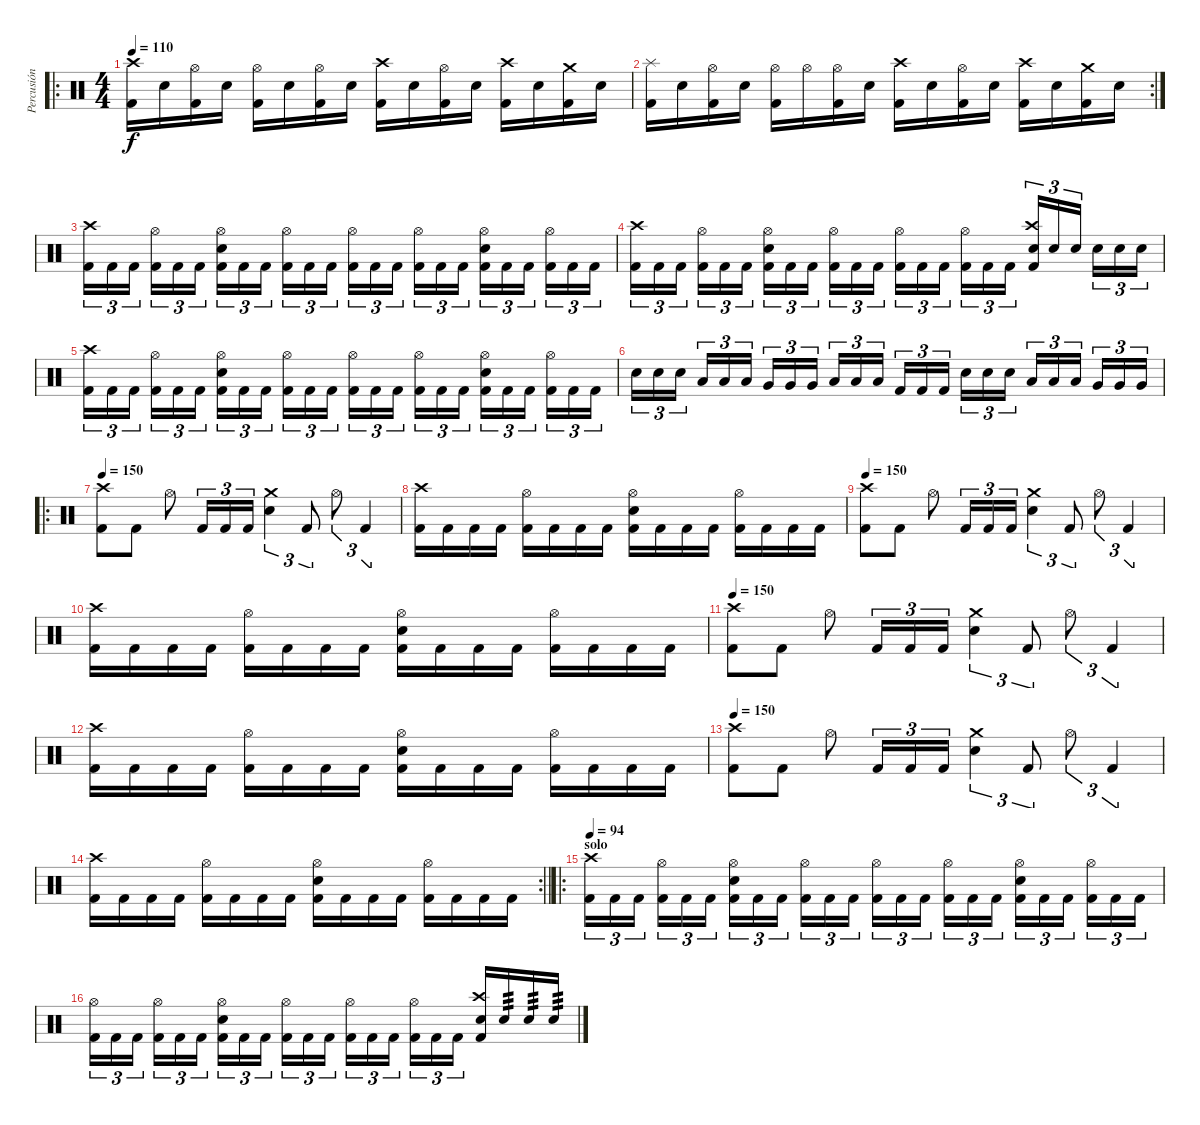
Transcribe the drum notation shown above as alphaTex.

\track ("Percusión" "Percusión") {instrument percussion}
\staff
\articulation defaults
\ro
\ts (4 4)
\tempo 110
\clef neutral
\ks c
("Kick (hit) 2" "Crash high (hit)").16{dy f} "Electric Snare (hit)".16 ("Kick (hit) 2" "Hi-Hat (open)").16 "Electric Snare (hit)".16 ("Kick (hit) 2" "Hi-Hat (open)").16 "Electric Snare (hit)".16 ("Kick (hit) 2" "Hi-Hat (open)").16 "Electric Snare (hit)".16 ("Kick (hit) 2" "Crash high (hit)").16 "Electric Snare (hit)".16 ("Kick (hit) 2" "Hi-Hat (open)").16 "Electric Snare (hit)".16 ("Kick (hit) 2" "Crash high (hit)").16 "Electric Snare (hit)".16 ("Kick (hit) 2" "Crash medium (hit)").16 "Electric Snare (hit)".16 |
\rc 2
("Kick (hit) 2" "Splash (hit)").16 "Electric Snare (hit)".16 ("Kick (hit) 2" "Hi-Hat (open)").16 "Electric Snare (hit)".16 ("Kick (hit) 2" "Hi-Hat (open)").16 "Hi-Hat (open)".16 ("Kick (hit) 2" "Hi-Hat (open)").16 "Electric Snare (hit)".16 ("Kick (hit) 2" "Crash high (hit)").16 "Electric Snare (hit)".16 ("Kick (hit) 2" "Hi-Hat (open)").16 "Electric Snare (hit)".16 ("Kick (hit) 2" "Crash high (hit)").16 "Electric Snare (hit)".16 ("Kick (hit) 2" "Crash medium (hit)").16 "Electric Snare (hit)".16 |
("Kick (hit) 2" "Crash high (hit)").16{tu (3 2)} "Kick (hit) 2".16{tu (3 2)} "Kick (hit) 2".16{tu (3 2) beam splitsecondary} ("Kick (hit) 2" "Hi-Hat (open)").16{tu (3 2)} "Kick (hit) 2".16{tu (3 2)} "Kick (hit) 2".16{tu (3 2)} ("Kick (hit) 2" "Hi-Hat (open)" "Electric Snare (hit)").16{tu (3 2)} "Kick (hit) 2".16{tu (3 2)} "Kick (hit) 2".16{tu (3 2) beam splitsecondary} ("Kick (hit) 2" "Hi-Hat (open)").16{tu (3 2)} "Kick (hit) 2".16{tu (3 2)} "Kick (hit) 2".16{tu (3 2)} ("Kick (hit) 2" "Hi-Hat (open)").16{tu (3 2)} "Kick (hit) 2".16{tu (3 2)} "Kick (hit) 2".16{tu (3 2) beam splitsecondary} ("Kick (hit) 2" "Hi-Hat (open)").16{tu (3 2)} "Kick (hit) 2".16{tu (3 2)} "Kick (hit) 2".16{tu (3 2)} ("Kick (hit) 2" "Hi-Hat (open)" "Electric Snare (hit)").16{tu (3 2)} "Kick (hit) 2".16{tu (3 2)} "Kick (hit) 2".16{tu (3 2) beam splitsecondary} ("Kick (hit) 2" "Hi-Hat (open)").16{tu (3 2)} "Kick (hit) 2".16{tu (3 2)} "Kick (hit) 2".16{tu (3 2)} |
("Kick (hit) 2" "Crash high (hit)").16{tu (3 2)} "Kick (hit) 2".16{tu (3 2)} "Kick (hit) 2".16{tu (3 2) beam splitsecondary} ("Kick (hit) 2" "Hi-Hat (open)").16{tu (3 2)} "Kick (hit) 2".16{tu (3 2)} "Kick (hit) 2".16{tu (3 2)} ("Kick (hit) 2" "Hi-Hat (open)" "Electric Snare (hit)").16{tu (3 2)} "Kick (hit) 2".16{tu (3 2)} "Kick (hit) 2".16{tu (3 2) beam splitsecondary} ("Kick (hit) 2" "Hi-Hat (open)").16{tu (3 2)} "Kick (hit) 2".16{tu (3 2)} "Kick (hit) 2".16{tu (3 2)} ("Kick (hit) 2" "Hi-Hat (open)").16{tu (3 2)} "Kick (hit) 2".16{tu (3 2)} "Kick (hit) 2".16{tu (3 2) beam splitsecondary} ("Kick (hit) 2" "Hi-Hat (open)").16{tu (3 2)} "Kick (hit) 2".16{tu (3 2)} "Kick (hit) 2".16{tu (3 2)} ("Kick (hit) 2" "Crash high (hit)" "Electric Snare (hit)").16{tu (3 2)} "Electric Snare (hit)".16{tu (3 2)} "Electric Snare (hit)".16{tu (3 2) beam splitsecondary} "Electric Snare (hit)".16{tu (3 2)} "Electric Snare (hit)".16{tu (3 2)} "Electric Snare (hit)".16{tu (3 2)} |
("Kick (hit) 2" "Crash high (hit)").16{tu (3 2)} "Kick (hit) 2".16{tu (3 2)} "Kick (hit) 2".16{tu (3 2) beam splitsecondary} ("Kick (hit) 2" "Hi-Hat (open)").16{tu (3 2)} "Kick (hit) 2".16{tu (3 2)} "Kick (hit) 2".16{tu (3 2)} ("Kick (hit) 2" "Hi-Hat (open)" "Electric Snare (hit)").16{tu (3 2)} "Kick (hit) 2".16{tu (3 2)} "Kick (hit) 2".16{tu (3 2) beam splitsecondary} ("Kick (hit) 2" "Hi-Hat (open)").16{tu (3 2)} "Kick (hit) 2".16{tu (3 2)} "Kick (hit) 2".16{tu (3 2)} ("Kick (hit) 2" "Hi-Hat (open)").16{tu (3 2)} "Kick (hit) 2".16{tu (3 2)} "Kick (hit) 2".16{tu (3 2) beam splitsecondary} ("Kick (hit) 2" "Hi-Hat (open)").16{tu (3 2)} "Kick (hit) 2".16{tu (3 2)} "Kick (hit) 2".16{tu (3 2)} ("Kick (hit) 2" "Hi-Hat (open)" "Electric Snare (hit)").16{tu (3 2)} "Kick (hit) 2".16{tu (3 2)} "Kick (hit) 2".16{tu (3 2) beam splitsecondary} ("Kick (hit) 2" "Hi-Hat (open)").16{tu (3 2)} "Kick (hit) 2".16{tu (3 2)} "Kick (hit) 2".16{tu (3 2)} |
"Electric Snare (hit)".16{tu (3 2)} "Electric Snare (hit)".16{tu (3 2)} "Electric Snare (hit)".16{tu (3 2) beam splitsecondary} "Low Tom (hit)".16{tu (3 2)} "Low Tom (hit)".16{tu (3 2)} "Low Tom (hit)".16{tu (3 2)} "Very Low Tom (hit)".16{tu (3 2)} "Very Low Tom (hit)".16{tu (3 2)} "Very Low Tom (hit)".16{tu (3 2) beam splitsecondary} "Low Floor Tom (hit)".16{tu (3 2)} "Low Floor Tom (hit)".16{tu (3 2)} "Low Floor Tom (hit)".16{tu (3 2)} "Kick (hit) 2".16{tu (3 2)} "Kick (hit) 2".16{tu (3 2)} "Kick (hit) 2".16{tu (3 2) beam splitsecondary} "Electric Snare (hit)".16{tu (3 2)} "Electric Snare (hit)".16{tu (3 2)} "Electric Snare (hit)".16{tu (3 2)} "Low Tom (hit)".16{tu (3 2)} "Low Tom (hit)".16{tu (3 2)} "Low Tom (hit)".16{tu (3 2) beam splitsecondary} "Very Low Tom (hit)".16{tu (3 2)} "Very Low Tom (hit)".16{tu (3 2)} "Very Low Tom (hit)".16{tu (3 2)} |
\ro
\tempo 150
("Kick (hit) 2" "Crash high (hit)").8 "Kick (hit) 2".8 "Hi-Hat (open)".8 "Kick (hit) 2".16{tu (3 2)} "Kick (hit) 2".16{tu (3 2)} "Kick (hit) 2".16{tu (3 2)} ("Crash medium (hit)" "Electric Snare (hit)").4{tu (3 2)} "Kick (hit) 2".8{tu (3 2)} "Hi-Hat (open)".8{tu (3 2)} "Kick (hit) 2".4{tu (3 2)} |
("Kick (hit) 2" "Crash high (hit)").16 "Kick (hit) 2".16 "Kick (hit) 2".16 "Kick (hit) 2".16 ("Kick (hit) 2" "Hi-Hat (open)").16 "Kick (hit) 2".16 "Kick (hit) 2".16 "Kick (hit) 2".16 ("Kick (hit) 2" "Hi-Hat (open)" "Electric Snare (hit)").16 "Kick (hit) 2".16 "Kick (hit) 2".16 "Kick (hit) 2".16 ("Kick (hit) 2" "Hi-Hat (open)").16 "Kick (hit) 2".16 "Kick (hit) 2".16 "Kick (hit) 2".16 |
\tempo 150
("Kick (hit) 2" "Crash high (hit)").8 "Kick (hit) 2".8 "Hi-Hat (open)".8 "Kick (hit) 2".16{tu (3 2)} "Kick (hit) 2".16{tu (3 2)} "Kick (hit) 2".16{tu (3 2)} ("Crash medium (hit)" "Electric Snare (hit)").4{tu (3 2)} "Kick (hit) 2".8{tu (3 2)} "Hi-Hat (open)".8{tu (3 2)} "Kick (hit) 2".4{tu (3 2)} |
("Kick (hit) 2" "Crash high (hit)").16 "Kick (hit) 2".16 "Kick (hit) 2".16 "Kick (hit) 2".16 ("Kick (hit) 2" "Hi-Hat (open)").16 "Kick (hit) 2".16 "Kick (hit) 2".16 "Kick (hit) 2".16 ("Kick (hit) 2" "Hi-Hat (open)" "Electric Snare (hit)").16 "Kick (hit) 2".16 "Kick (hit) 2".16 "Kick (hit) 2".16 ("Kick (hit) 2" "Hi-Hat (open)").16 "Kick (hit) 2".16 "Kick (hit) 2".16 "Kick (hit) 2".16 |
\tempo 150
("Kick (hit) 2" "Crash high (hit)").8 "Kick (hit) 2".8 "Hi-Hat (open)".8 "Kick (hit) 2".16{tu (3 2)} "Kick (hit) 2".16{tu (3 2)} "Kick (hit) 2".16{tu (3 2)} ("Crash medium (hit)" "Electric Snare (hit)").4{tu (3 2)} "Kick (hit) 2".8{tu (3 2)} "Hi-Hat (open)".8{tu (3 2)} "Kick (hit) 2".4{tu (3 2)} |
("Kick (hit) 2" "Crash high (hit)").16 "Kick (hit) 2".16 "Kick (hit) 2".16 "Kick (hit) 2".16 ("Kick (hit) 2" "Hi-Hat (open)").16 "Kick (hit) 2".16 "Kick (hit) 2".16 "Kick (hit) 2".16 ("Kick (hit) 2" "Hi-Hat (open)" "Electric Snare (hit)").16 "Kick (hit) 2".16 "Kick (hit) 2".16 "Kick (hit) 2".16 ("Kick (hit) 2" "Hi-Hat (open)").16 "Kick (hit) 2".16 "Kick (hit) 2".16 "Kick (hit) 2".16 |
\tempo 150
("Kick (hit) 2" "Crash high (hit)").8 "Kick (hit) 2".8 "Hi-Hat (open)".8 "Kick (hit) 2".16{tu (3 2)} "Kick (hit) 2".16{tu (3 2)} "Kick (hit) 2".16{tu (3 2)} ("Crash medium (hit)" "Electric Snare (hit)").4{tu (3 2)} "Kick (hit) 2".8{tu (3 2)} "Hi-Hat (open)".8{tu (3 2)} "Kick (hit) 2".4{tu (3 2)} |
\rc 2
\barLineRight lightlight
("Kick (hit) 2" "Crash high (hit)").16 "Kick (hit) 2".16 "Kick (hit) 2".16 "Kick (hit) 2".16 ("Kick (hit) 2" "Hi-Hat (open)").16 "Kick (hit) 2".16 "Kick (hit) 2".16 "Kick (hit) 2".16 ("Kick (hit) 2" "Hi-Hat (open)" "Electric Snare (hit)").16 "Kick (hit) 2".16 "Kick (hit) 2".16 "Kick (hit) 2".16 ("Kick (hit) 2" "Hi-Hat (open)").16 "Kick (hit) 2".16 "Kick (hit) 2".16 "Kick (hit) 2".16 |
\ro
\section ("" "solo")
\tempo 94
("Kick (hit) 2" "Crash high (hit)").16{tu (3 2)} "Kick (hit) 2".16{tu (3 2)} "Kick (hit) 2".16{tu (3 2) beam splitsecondary} ("Kick (hit) 2" "Hi-Hat (open)").16{tu (3 2)} "Kick (hit) 2".16{tu (3 2)} "Kick (hit) 2".16{tu (3 2)} ("Kick (hit) 2" "Hi-Hat (open)" "Electric Snare (hit)").16{tu (3 2)} "Kick (hit) 2".16{tu (3 2)} "Kick (hit) 2".16{tu (3 2) beam splitsecondary} ("Kick (hit) 2" "Hi-Hat (open)").16{tu (3 2)} "Kick (hit) 2".16{tu (3 2)} "Kick (hit) 2".16{tu (3 2)} ("Kick (hit) 2" "Hi-Hat (open)").16{tu (3 2)} "Kick (hit) 2".16{tu (3 2)} "Kick (hit) 2".16{tu (3 2) beam splitsecondary} ("Kick (hit) 2" "Hi-Hat (open)").16{tu (3 2)} "Kick (hit) 2".16{tu (3 2)} "Kick (hit) 2".16{tu (3 2)} ("Kick (hit) 2" "Hi-Hat (open)" "Electric Snare (hit)").16{tu (3 2)} "Kick (hit) 2".16{tu (3 2)} "Kick (hit) 2".16{tu (3 2) beam splitsecondary} ("Kick (hit) 2" "Hi-Hat (open)").16{tu (3 2)} "Kick (hit) 2".16{tu (3 2)} "Kick (hit) 2".16{tu (3 2)} |
("Kick (hit) 2" "Hi-Hat (open)").16{tu (3 2)} "Kick (hit) 2".16{tu (3 2)} "Kick (hit) 2".16{tu (3 2) beam splitsecondary} ("Kick (hit) 2" "Hi-Hat (open)").16{tu (3 2)} "Kick (hit) 2".16{tu (3 2)} "Kick (hit) 2".16{tu (3 2)} ("Kick (hit) 2" "Hi-Hat (open)" "Electric Snare (hit)").16{tu (3 2)} "Kick (hit) 2".16{tu (3 2)} "Kick (hit) 2".16{tu (3 2) beam splitsecondary} ("Kick (hit) 2" "Hi-Hat (open)").16{tu (3 2)} "Kick (hit) 2".16{tu (3 2)} "Kick (hit) 2".16{tu (3 2)} ("Kick (hit) 2" "Hi-Hat (open)").16{tu (3 2)} "Kick (hit) 2".16{tu (3 2)} "Kick (hit) 2".16{tu (3 2) beam splitsecondary} ("Kick (hit) 2" "Hi-Hat (open)").16{tu (3 2)} "Kick (hit) 2".16{tu (3 2)} "Kick (hit) 2".16{tu (3 2)} ("Kick (hit) 2" "Crash high (hit)" "Electric Snare (hit)").16 "Electric Snare (hit)".16{tp 3} "Electric Snare (hit)".16{tp 3} "Electric Snare (hit)".16{tp 3}
